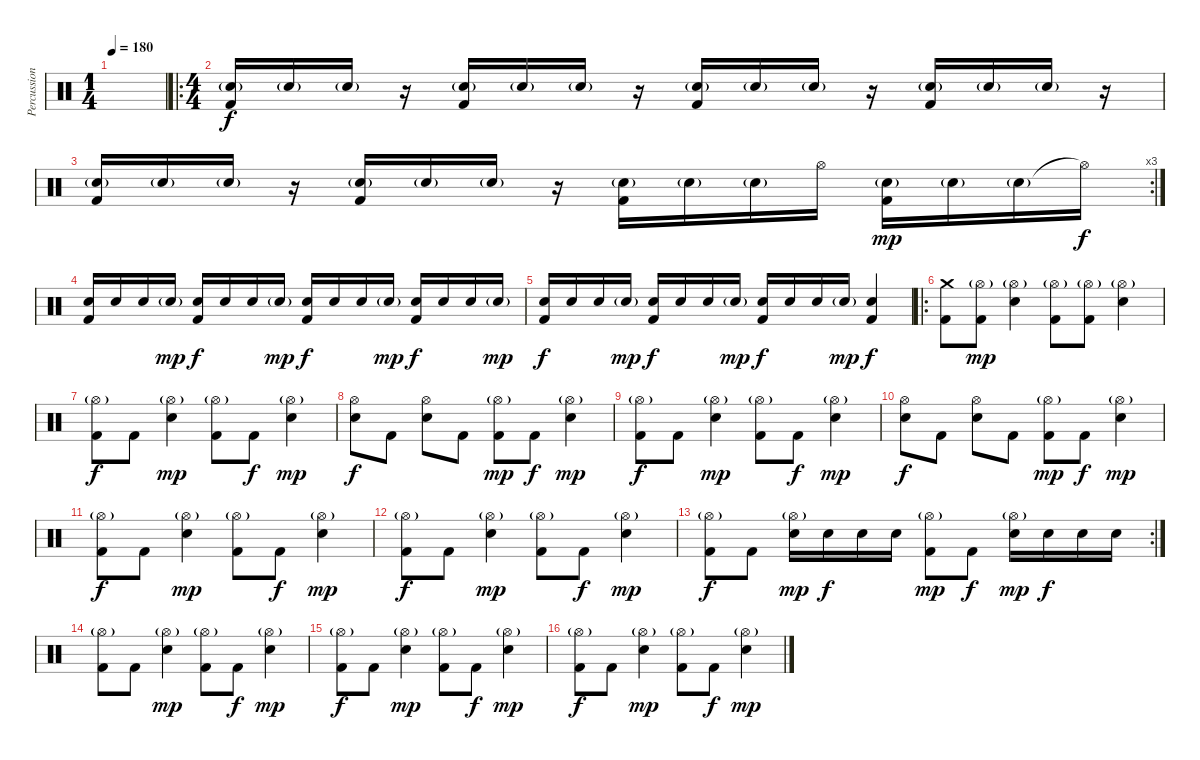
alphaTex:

\track ("Percussions" "Percussion") {instrument percussion}
\staff {score}
\articulation defaults
\ts (1 4)
\tempo 180
\clef neutral
\ks c
|
\ro
\ts (4 4)
("Snare (hit) 2"{g} "Kick (hit) 2").16 "Snare (hit) 2"{g}.16 "Snare (hit) 2"{g}.16 r.16 ("Snare (hit) 2"{g} "Kick (hit) 2").16 "Snare (hit) 2"{g}.16 "Snare (hit) 2"{g}.16 r.16 ("Snare (hit) 2"{g} "Kick (hit) 2").16 "Snare (hit) 2"{g}.16 "Snare (hit) 2"{g}.16 r.16 ("Snare (hit) 2"{g} "Kick (hit) 2").16 "Snare (hit) 2"{g}.16 "Snare (hit) 2"{g}.16 r.16 |
\rc 3
("Snare (hit) 2"{g} "Kick (hit) 2").16 "Snare (hit) 2"{g}.16 "Snare (hit) 2"{g}.16 r.16 ("Snare (hit) 2"{g} "Kick (hit) 2").16 "Snare (hit) 2"{g}.16 "Snare (hit) 2"{g}.16 r.16 ("Snare (hit) 2"{g} "Kick (hit) 2").16 "Snare (hit) 2"{g}.16 "Snare (hit) 2"{g}.16 "Hi-Hat (open)".16{dy f} ("Snare (hit) 2"{g} "Kick (hit) 2").16{dy mp} "Snare (hit) 2"{g}.16 "Snare (hit) 2"{g}.16 "Hi-Hat (open)"{t}.16{dy f} |
("Snare (hit) 2" "Kick (hit) 2").16 "Snare (hit) 2".16 "Snare (hit) 2".16 "Snare (hit) 2"{g}.16{dy mp} ("Snare (hit) 2" "Kick (hit) 2").16{dy f} "Snare (hit) 2".16 "Snare (hit) 2".16 "Snare (hit) 2"{g}.16{dy mp} ("Snare (hit) 2" "Kick (hit) 2").16{dy f} "Snare (hit) 2".16 "Snare (hit) 2".16 "Snare (hit) 2"{g}.16{dy mp} ("Snare (hit) 2" "Kick (hit) 2").16{dy f} "Snare (hit) 2".16 "Snare (hit) 2".16 "Snare (hit) 2"{g}.16{dy mp} |
("Snare (hit) 2" "Kick (hit) 2").16{dy f} "Snare (hit) 2".16 "Snare (hit) 2".16 "Snare (hit) 2"{g}.16{dy mp} ("Snare (hit) 2" "Kick (hit) 2").16{dy f} "Snare (hit) 2".16 "Snare (hit) 2".16 "Snare (hit) 2"{g}.16{dy mp} ("Snare (hit) 2" "Kick (hit) 2").16{dy f} "Snare (hit) 2".16 "Snare (hit) 2".16 "Snare (hit) 2"{g}.16{dy mp} ("Snare (hit) 2" "Kick (hit) 2").4{dy f} |
\ro
("Crash medium (hit)" "Kick (hit) 2").8 ("Hi-Hat (open)"{g} "Kick (hit) 2").8{dy mp} ("Snare (hit) 2" "Hi-Hat (open)"{g}).4 ("Hi-Hat (open)"{g} "Kick (hit) 2").8 ("Hi-Hat (open)"{g} "Kick (hit) 2").8 ("Snare (hit) 2" "Hi-Hat (open)"{g}).4 |
("Hi-Hat (open)"{g} "Kick (hit) 2").8{dy f} "Kick (hit) 2".8 ("Snare (hit) 2" "Hi-Hat (open)"{g}).4{dy mp} ("Hi-Hat (open)"{g} "Kick (hit) 2").8 "Kick (hit) 2".8{dy f} ("Snare (hit) 2" "Hi-Hat (open)"{g}).4{dy mp} |
("Snare (hit) 2" "Hi-Hat (open)").8{dy f} "Kick (hit) 2".8 ("Snare (hit) 2" "Hi-Hat (open)").8 "Kick (hit) 2".8 ("Hi-Hat (open)"{g} "Kick (hit) 2").8{dy mp} "Kick (hit) 2".8{dy f} ("Snare (hit) 2" "Hi-Hat (open)"{g}).4{dy mp} |
("Hi-Hat (open)"{g} "Kick (hit) 2").8{dy f} "Kick (hit) 2".8 ("Snare (hit) 2" "Hi-Hat (open)"{g}).4{dy mp} ("Hi-Hat (open)"{g} "Kick (hit) 2").8 "Kick (hit) 2".8{dy f} ("Snare (hit) 2" "Hi-Hat (open)"{g}).4{dy mp} |
("Snare (hit) 2" "Hi-Hat (open)").8{dy f} "Kick (hit) 2".8 ("Snare (hit) 2" "Hi-Hat (open)").8 "Kick (hit) 2".8 ("Hi-Hat (open)"{g} "Kick (hit) 2").8{dy mp} "Kick (hit) 2".8{dy f} ("Snare (hit) 2" "Hi-Hat (open)"{g}).4{dy mp} |
("Hi-Hat (open)"{g} "Kick (hit) 2").8{dy f} "Kick (hit) 2".8 ("Snare (hit) 2" "Hi-Hat (open)"{g}).4{dy mp} ("Hi-Hat (open)"{g} "Kick (hit) 2").8 "Kick (hit) 2".8{dy f} ("Snare (hit) 2" "Hi-Hat (open)"{g}).4{dy mp} |
("Hi-Hat (open)"{g} "Kick (hit) 2").8{dy f} "Kick (hit) 2".8 ("Snare (hit) 2" "Hi-Hat (open)"{g}).4{dy mp} ("Hi-Hat (open)"{g} "Kick (hit) 2").8 "Kick (hit) 2".8{dy f} ("Snare (hit) 2" "Hi-Hat (open)"{g}).4{dy mp} |
\rc 2
("Hi-Hat (open)"{g} "Kick (hit) 2").8{dy f} "Kick (hit) 2".8 ("Snare (hit) 2" "Hi-Hat (open)"{g}).16{dy mp} "Snare (hit) 2".16{dy f} "Snare (hit) 2".16 "Snare (hit) 2".16 ("Hi-Hat (open)"{g} "Kick (hit) 2").8{dy mp} "Kick (hit) 2".8{dy f} ("Snare (hit) 2" "Hi-Hat (open)"{g}).16{dy mp} "Snare (hit) 2".16{dy f} "Snare (hit) 2".16 "Snare (hit) 2".16 |
("Hi-Hat (open)"{g} "Kick (hit) 2").8 "Kick (hit) 2".8 ("Snare (hit) 2" "Hi-Hat (open)"{g}).4{dy mp} ("Hi-Hat (open)"{g} "Kick (hit) 2").8 "Kick (hit) 2".8{dy f} ("Snare (hit) 2" "Hi-Hat (open)"{g}).4{dy mp} |
("Hi-Hat (open)"{g} "Kick (hit) 2").8{dy f} "Kick (hit) 2".8 ("Snare (hit) 2" "Hi-Hat (open)"{g}).4{dy mp} ("Hi-Hat (open)"{g} "Kick (hit) 2").8 "Kick (hit) 2".8{dy f} ("Snare (hit) 2" "Hi-Hat (open)"{g}).4{dy mp} |
("Hi-Hat (open)"{g} "Kick (hit) 2").8{dy f} "Kick (hit) 2".8 ("Snare (hit) 2" "Hi-Hat (open)"{g}).4{dy mp} ("Hi-Hat (open)"{g} "Kick (hit) 2").8 "Kick (hit) 2".8{dy f} ("Snare (hit) 2" "Hi-Hat (open)"{g}).4{dy mp}
